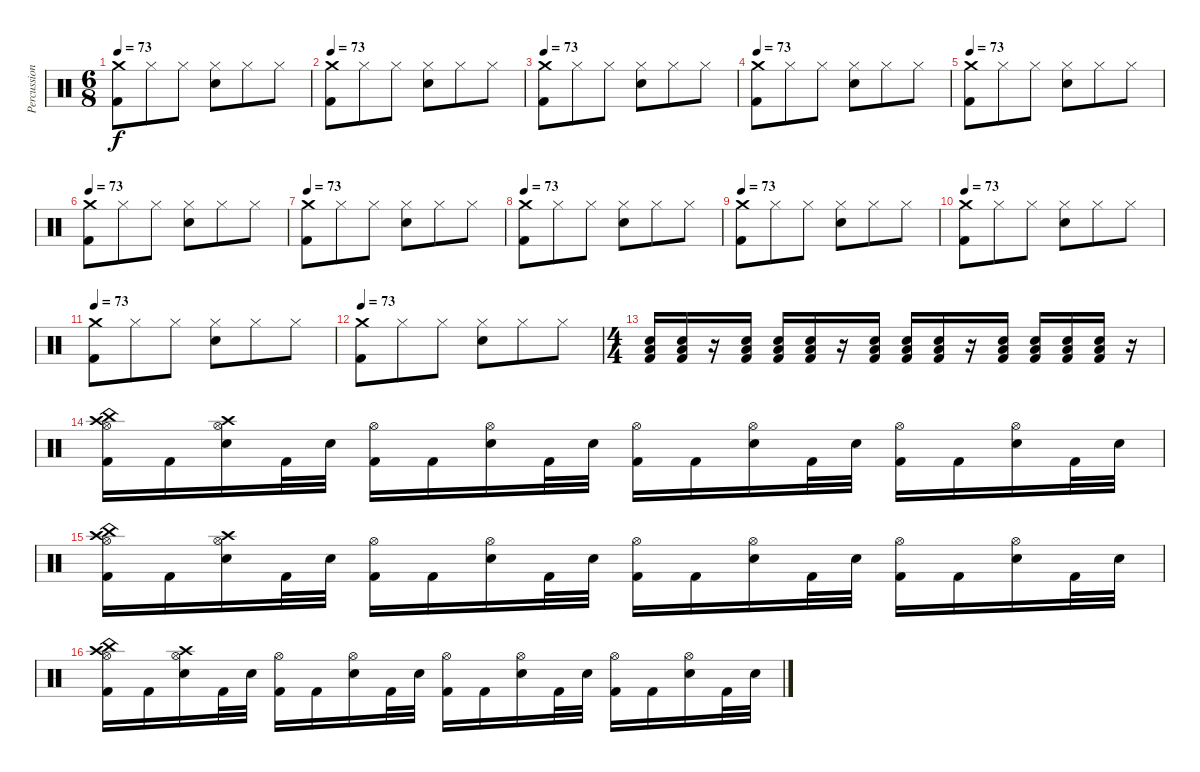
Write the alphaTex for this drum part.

\track ("Percussion" "Percussion") {instrument percussion}
\staff {score}
\articulation defaults
\ts (6 8)
\tempo 73
\clef neutral
\ks c
("Crash medium (hit)" "Kick (hit) 2").8{dy f} "Hi-Hat (closed)".8 "Hi-Hat (closed)".8 ("Hi-Hat (closed)" "Snare (hit) 2").8 "Hi-Hat (closed)".8 "Hi-Hat (closed)".8 |
\tempo 73
("Crash medium (hit)" "Kick (hit) 2").8 "Hi-Hat (closed)".8 "Hi-Hat (closed)".8 ("Hi-Hat (closed)" "Snare (hit) 2").8 "Hi-Hat (closed)".8 "Hi-Hat (closed)".8 |
\tempo 73
("Crash medium (hit)" "Kick (hit) 2").8 "Hi-Hat (closed)".8 "Hi-Hat (closed)".8 ("Hi-Hat (closed)" "Snare (hit) 2").8 "Hi-Hat (closed)".8 "Hi-Hat (closed)".8 |
\tempo 73
("Crash medium (hit)" "Kick (hit) 2").8 "Hi-Hat (closed)".8 "Hi-Hat (closed)".8 ("Hi-Hat (closed)" "Snare (hit) 2").8 "Hi-Hat (closed)".8 "Hi-Hat (closed)".8 |
\tempo 73
("Crash medium (hit)" "Kick (hit) 2").8 "Hi-Hat (closed)".8 "Hi-Hat (closed)".8 ("Hi-Hat (closed)" "Snare (hit) 2").8 "Hi-Hat (closed)".8 "Hi-Hat (closed)".8 |
\tempo 73
("Crash medium (hit)" "Kick (hit) 2").8 "Hi-Hat (closed)".8 "Hi-Hat (closed)".8 ("Hi-Hat (closed)" "Snare (hit) 2").8 "Hi-Hat (closed)".8 "Hi-Hat (closed)".8 |
\tempo 73
("Crash medium (hit)" "Kick (hit) 2").8 "Hi-Hat (closed)".8 "Hi-Hat (closed)".8 ("Hi-Hat (closed)" "Snare (hit) 2").8 "Hi-Hat (closed)".8 "Hi-Hat (closed)".8 |
\tempo 73
("Crash medium (hit)" "Kick (hit) 2").8 "Hi-Hat (closed)".8 "Hi-Hat (closed)".8 ("Hi-Hat (closed)" "Snare (hit) 2").8 "Hi-Hat (closed)".8 "Hi-Hat (closed)".8 |
\tempo 73
("Crash medium (hit)" "Kick (hit) 2").8 "Hi-Hat (closed)".8 "Hi-Hat (closed)".8 ("Hi-Hat (closed)" "Snare (hit) 2").8 "Hi-Hat (closed)".8 "Hi-Hat (closed)".8 |
\tempo 73
("Crash medium (hit)" "Kick (hit) 2").8 "Hi-Hat (closed)".8 "Hi-Hat (closed)".8 ("Hi-Hat (closed)" "Snare (hit) 2").8 "Hi-Hat (closed)".8 "Hi-Hat (closed)".8 |
\tempo 73
("Crash medium (hit)" "Kick (hit) 2").8 "Hi-Hat (closed)".8 "Hi-Hat (closed)".8 ("Hi-Hat (closed)" "Snare (hit) 2").8 "Hi-Hat (closed)".8 "Hi-Hat (closed)".8 |
\tempo 73
("Crash medium (hit)" "Kick (hit) 2").8 "Hi-Hat (closed)".8 "Hi-Hat (closed)".8 ("Hi-Hat (closed)" "Snare (hit) 2").8 "Hi-Hat (closed)".8 "Hi-Hat (closed)".8 |
\ts (4 4)
("Low Floor Tom (hit)" "Electric Snare (hit)" "Kick (hit) 2").16 ("Low Floor Tom (hit)" "Electric Snare (hit)" "Kick (hit) 2").16 r.16 ("Low Floor Tom (hit)" "Electric Snare (hit)" "Kick (hit) 2").16 ("Low Floor Tom (hit)" "Electric Snare (hit)" "Kick (hit) 2").16 ("Low Floor Tom (hit)" "Electric Snare (hit)" "Kick (hit) 2").16 r.16 ("Low Floor Tom (hit)" "Electric Snare (hit)" "Kick (hit) 2").16 ("Low Floor Tom (hit)" "Electric Snare (hit)" "Kick (hit) 2").16 ("Low Floor Tom (hit)" "Electric Snare (hit)" "Kick (hit) 2").16 r.16 ("Low Floor Tom (hit)" "Electric Snare (hit)" "Kick (hit) 2").16 ("Low Floor Tom (hit)" "Electric Snare (hit)" "Kick (hit) 2").16 ("Low Floor Tom (hit)" "Electric Snare (hit)" "Kick (hit) 2").16 ("Low Floor Tom (hit)" "Electric Snare (hit)" "Kick (hit) 2").16 r.16 |
("China (hit)" "Crash high (hit)" "Hi-Hat (open)" "Kick (hit) 2").16 "Kick (hit) 2".16 ("Crash high (hit)" "Hi-Hat (open)" "Electric Snare (hit)").16 "Kick (hit) 2".32 "Electric Snare (hit)".32 ("Hi-Hat (open)" "Kick (hit) 2").16 "Kick (hit) 2".16 ("Hi-Hat (open)" "Electric Snare (hit)").16 "Kick (hit) 2".32 "Electric Snare (hit)".32 ("Hi-Hat (open)" "Kick (hit) 2").16 "Kick (hit) 2".16 ("Hi-Hat (open)" "Electric Snare (hit)").16 "Kick (hit) 2".32 "Electric Snare (hit)".32 ("Hi-Hat (open)" "Kick (hit) 2").16 "Kick (hit) 2".16 ("Hi-Hat (open)" "Electric Snare (hit)").16 "Kick (hit) 2".32 "Electric Snare (hit)".32 |
("China (hit)" "Crash high (hit)" "Hi-Hat (open)" "Kick (hit) 2").16 "Kick (hit) 2".16 ("Crash high (hit)" "Hi-Hat (open)" "Electric Snare (hit)").16 "Kick (hit) 2".32 "Electric Snare (hit)".32 ("Hi-Hat (open)" "Kick (hit) 2").16 "Kick (hit) 2".16 ("Hi-Hat (open)" "Electric Snare (hit)").16 "Kick (hit) 2".32 "Electric Snare (hit)".32 ("Hi-Hat (open)" "Kick (hit) 2").16 "Kick (hit) 2".16 ("Hi-Hat (open)" "Electric Snare (hit)").16 "Kick (hit) 2".32 "Electric Snare (hit)".32 ("Hi-Hat (open)" "Kick (hit) 2").16 "Kick (hit) 2".16 ("Hi-Hat (open)" "Electric Snare (hit)").16 "Kick (hit) 2".32 "Electric Snare (hit)".32 |
("China (hit)" "Crash high (hit)" "Hi-Hat (open)" "Kick (hit) 2").16 "Kick (hit) 2".16 ("Crash high (hit)" "Hi-Hat (open)" "Electric Snare (hit)").16 "Kick (hit) 2".32 "Electric Snare (hit)".32 ("Hi-Hat (open)" "Kick (hit) 2").16 "Kick (hit) 2".16 ("Hi-Hat (open)" "Electric Snare (hit)").16 "Kick (hit) 2".32 "Electric Snare (hit)".32 ("Hi-Hat (open)" "Kick (hit) 2").16 "Kick (hit) 2".16 ("Hi-Hat (open)" "Electric Snare (hit)").16 "Kick (hit) 2".32 "Electric Snare (hit)".32 ("Hi-Hat (open)" "Kick (hit) 2").16 "Kick (hit) 2".16 ("Hi-Hat (open)" "Electric Snare (hit)").16 "Kick (hit) 2".32 "Electric Snare (hit)".32
